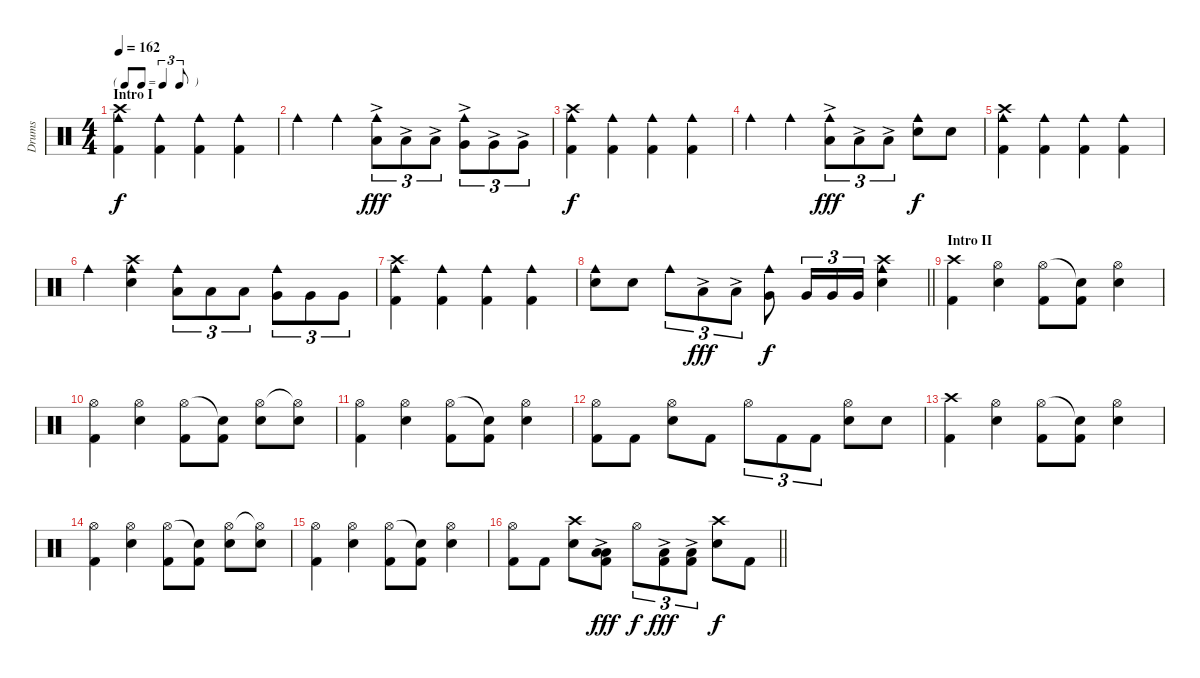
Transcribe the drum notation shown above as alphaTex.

\track ("Drums" "Drums") {instrument percussion}
\staff {score}
\articulation defaults
\ts (4 4)
\tf triplet8th
\section ("" "Intro I")
\tempo 162
\clef neutral
\ks c
("Crash high (hit)" "Cowbell medium (hit)" "Kick (hit) 2").4{dy f} ("Cowbell medium (hit)" "Kick (hit) 2").4 ("Cowbell medium (hit)" "Kick (hit) 2").4 ("Cowbell medium (hit)" "Kick (hit) 2").4 |
"Cowbell medium (hit)".4 "Cowbell medium (hit)".4 ("Cowbell medium (hit)" "Low Tom (hit)"{ac}).8{tu (3 2) dy fff} "Low Tom (hit)"{ac}.8{tu (3 2)} "Low Tom (hit)"{ac}.8{tu (3 2)} ("Cowbell medium (hit)" "Very Low Tom (hit)"{ac}).8{tu (3 2)} "Very Low Tom (hit)"{ac}.8{tu (3 2)} "Very Low Tom (hit)"{ac}.8{tu (3 2)} |
("Crash high (hit)" "Cowbell medium (hit)" "Kick (hit) 2").4{dy f} ("Cowbell medium (hit)" "Kick (hit) 2").4 ("Cowbell medium (hit)" "Kick (hit) 2").4 ("Cowbell medium (hit)" "Kick (hit) 2").4 |
"Cowbell medium (hit)".4 "Cowbell medium (hit)".4 ("Cowbell medium (hit)" "Low Tom (hit)"{ac}).8{tu (3 2) dy fff} "Low Tom (hit)"{ac}.8{tu (3 2)} "Low Tom (hit)"{ac}.8{tu (3 2)} ("Cowbell medium (hit)" "Snare (hit) 2").8{dy f} "Snare (hit) 2".8 |
("Crash high (hit)" "Cowbell medium (hit)" "Kick (hit) 2").4 ("Cowbell medium (hit)" "Kick (hit) 2").4 ("Cowbell medium (hit)" "Kick (hit) 2").4 ("Cowbell medium (hit)" "Kick (hit) 2").4 |
"Cowbell medium (hit)".4 ("Crash high (hit)" "Cowbell medium (hit)" "Snare (hit) 2").4 ("Cowbell medium (hit)" "Low Tom (hit)").8{tu (3 2)} "Low Tom (hit)".8{tu (3 2)} "Low Tom (hit)".8{tu (3 2)} ("Cowbell medium (hit)" "Very Low Tom (hit)").8{tu (3 2)} "Very Low Tom (hit)".8{tu (3 2)} "Very Low Tom (hit)".8{tu (3 2)} |
("Crash high (hit)" "Cowbell medium (hit)" "Kick (hit) 2").4 ("Cowbell medium (hit)" "Kick (hit) 2").4 ("Cowbell medium (hit)" "Kick (hit) 2").4 ("Cowbell medium (hit)" "Kick (hit) 2").4 |
\barLineRight lightlight
("Cowbell medium (hit)" "Snare (hit) 2").8 "Snare (hit) 2".8 "Cowbell medium (hit)".8{tu (3 2)} "Low Tom (hit)"{ac}.8{tu (3 2) dy fff} "Low Tom (hit)"{ac}.8{tu (3 2)} ("Cowbell medium (hit)" "Very Low Tom (hit)").8{dy f} "Very Low Tom (hit)".16{tu (3 2)} "Very Low Tom (hit)".16{tu (3 2)} "Very Low Tom (hit)".16{tu (3 2)} ("Crash high (hit)" "Cowbell medium (hit)" "Snare (hit) 2").4 |
\section ("" "Intro II")
("Crash high (hit)" "Kick (hit) 2").4 ("Hi-Hat (open)" "Snare (hit) 2").4 ("Hi-Hat (open)" "Kick (hit) 2").8 ("Snare (hit)"{t} "Kick (hit) 2").8 ("Hi-Hat (open)" "Snare (hit) 2").4 |
("Hi-Hat (open)" "Kick (hit) 2").4 ("Hi-Hat (open)" "Snare (hit) 2").4 ("Hi-Hat (open)" "Kick (hit) 2").8 ("Snare (hit)"{t} "Kick (hit) 2").8 ("Hi-Hat (open)" "Snare (hit) 2").8 ("Hi-Hat (open)"{t} "Snare (hit) 2").8 |
("Hi-Hat (open)" "Kick (hit) 2").4 ("Hi-Hat (open)" "Snare (hit) 2").4 ("Hi-Hat (open)" "Kick (hit) 2").8 ("Snare (hit)"{t} "Kick (hit) 2").8 ("Hi-Hat (open)" "Snare (hit) 2").4 |
("Hi-Hat (open)" "Kick (hit) 2").8 "Kick (hit) 2".8 ("Hi-Hat (open)" "Snare (hit) 2").8 "Kick (hit) 2".8 "Hi-Hat (open)".8{tu (3 2)} "Kick (hit) 2".8{tu (3 2)} "Kick (hit) 2".8{tu (3 2)} ("Hi-Hat (open)" "Snare (hit) 2").8 "Snare (hit) 2".8 |
("Crash high (hit)" "Kick (hit) 2").4 ("Hi-Hat (open)" "Snare (hit) 2").4 ("Hi-Hat (open)" "Kick (hit) 2").8 ("Snare (hit)"{t} "Kick (hit) 2").8 ("Hi-Hat (open)" "Snare (hit) 2").4 |
("Hi-Hat (open)" "Kick (hit) 2").4 ("Hi-Hat (open)" "Snare (hit) 2").4 ("Hi-Hat (open)" "Kick (hit) 2").8 ("Snare (hit)"{t} "Kick (hit) 2").8 ("Hi-Hat (open)" "Snare (hit) 2").8 ("Hi-Hat (open)"{t} "Snare (hit) 2").8 |
("Hi-Hat (open)" "Kick (hit) 2").4 ("Hi-Hat (open)" "Snare (hit) 2").4 ("Hi-Hat (open)" "Kick (hit) 2").8 ("Snare (hit)"{t} "Kick (hit) 2").8 ("Hi-Hat (open)" "Snare (hit) 2").4 |
\barLineRight lightlight
("Hi-Hat (open)" "Kick (hit) 2").8 "Kick (hit) 2".8 ("Crash high (hit)" "Snare (hit) 2").8 ("Low Tom (hit)"{ac} "Low Tom (hit)"{ac} "Kick (hit) 2").8{dy fff} "Hi-Hat (open)".8{tu (3 2) dy f} ("Low Floor Tom (hit)"{ac} "Kick (hit) 2").8{tu (3 2) dy fff} ("Low Floor Tom (hit)"{ac} "Kick (hit) 2").8{tu (3 2)} ("Crash high (hit)" "Snare (hit) 2").8{dy f} "Kick (hit) 2".8
